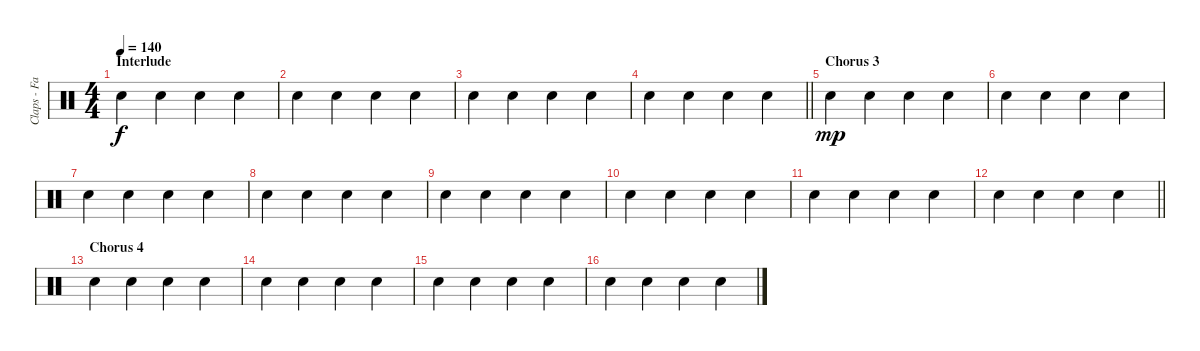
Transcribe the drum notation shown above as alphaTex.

\track ("Claps - Fans" "Claps - Fa") {instrument percussion}
\staff {score}
\articulation defaults
\ts (4 4)
\section ("" "Interlude")
\tempo 140
\clef neutral
\ks c "Hand Clap (hit)".4{dy f} "Hand Clap (hit)".4 "Hand Clap (hit)".4 "Hand Clap (hit)".4
|
"Hand Clap (hit)".4 "Hand Clap (hit)".4 "Hand Clap (hit)".4 "Hand Clap (hit)".4 |
"Hand Clap (hit)".4 "Hand Clap (hit)".4 "Hand Clap (hit)".4 "Hand Clap (hit)".4 |
\barLineRight lightlight "Hand Clap (hit)".4 "Hand Clap (hit)".4 "Hand Clap (hit)".4 "Hand Clap (hit)".4
|
\section ("" "Chorus 3")
"Hand Clap (hit)".4{dy mp} "Hand Clap (hit)".4 "Hand Clap (hit)".4 "Hand Clap (hit)".4 |
"Hand Clap (hit)".4 "Hand Clap (hit)".4 "Hand Clap (hit)".4 "Hand Clap (hit)".4 |
"Hand Clap (hit)".4 "Hand Clap (hit)".4 "Hand Clap (hit)".4 "Hand Clap (hit)".4 |
"Hand Clap (hit)".4 "Hand Clap (hit)".4 "Hand Clap (hit)".4 "Hand Clap (hit)".4 |
"Hand Clap (hit)".4 "Hand Clap (hit)".4 "Hand Clap (hit)".4 "Hand Clap (hit)".4 |
"Hand Clap (hit)".4 "Hand Clap (hit)".4 "Hand Clap (hit)".4 "Hand Clap (hit)".4 |
"Hand Clap (hit)".4 "Hand Clap (hit)".4 "Hand Clap (hit)".4 "Hand Clap (hit)".4 |
\barLineRight lightlight "Hand Clap (hit)".4 "Hand Clap (hit)".4 "Hand Clap (hit)".4 "Hand Clap (hit)".4
|
\section ("" "Chorus 4")
"Hand Clap (hit)".4 "Hand Clap (hit)".4 "Hand Clap (hit)".4 "Hand Clap (hit)".4 |
"Hand Clap (hit)".4 "Hand Clap (hit)".4 "Hand Clap (hit)".4 "Hand Clap (hit)".4 |
"Hand Clap (hit)".4 "Hand Clap (hit)".4 "Hand Clap (hit)".4 "Hand Clap (hit)".4 |
"Hand Clap (hit)".4 "Hand Clap (hit)".4 "Hand Clap (hit)".4 "Hand Clap (hit)".4
